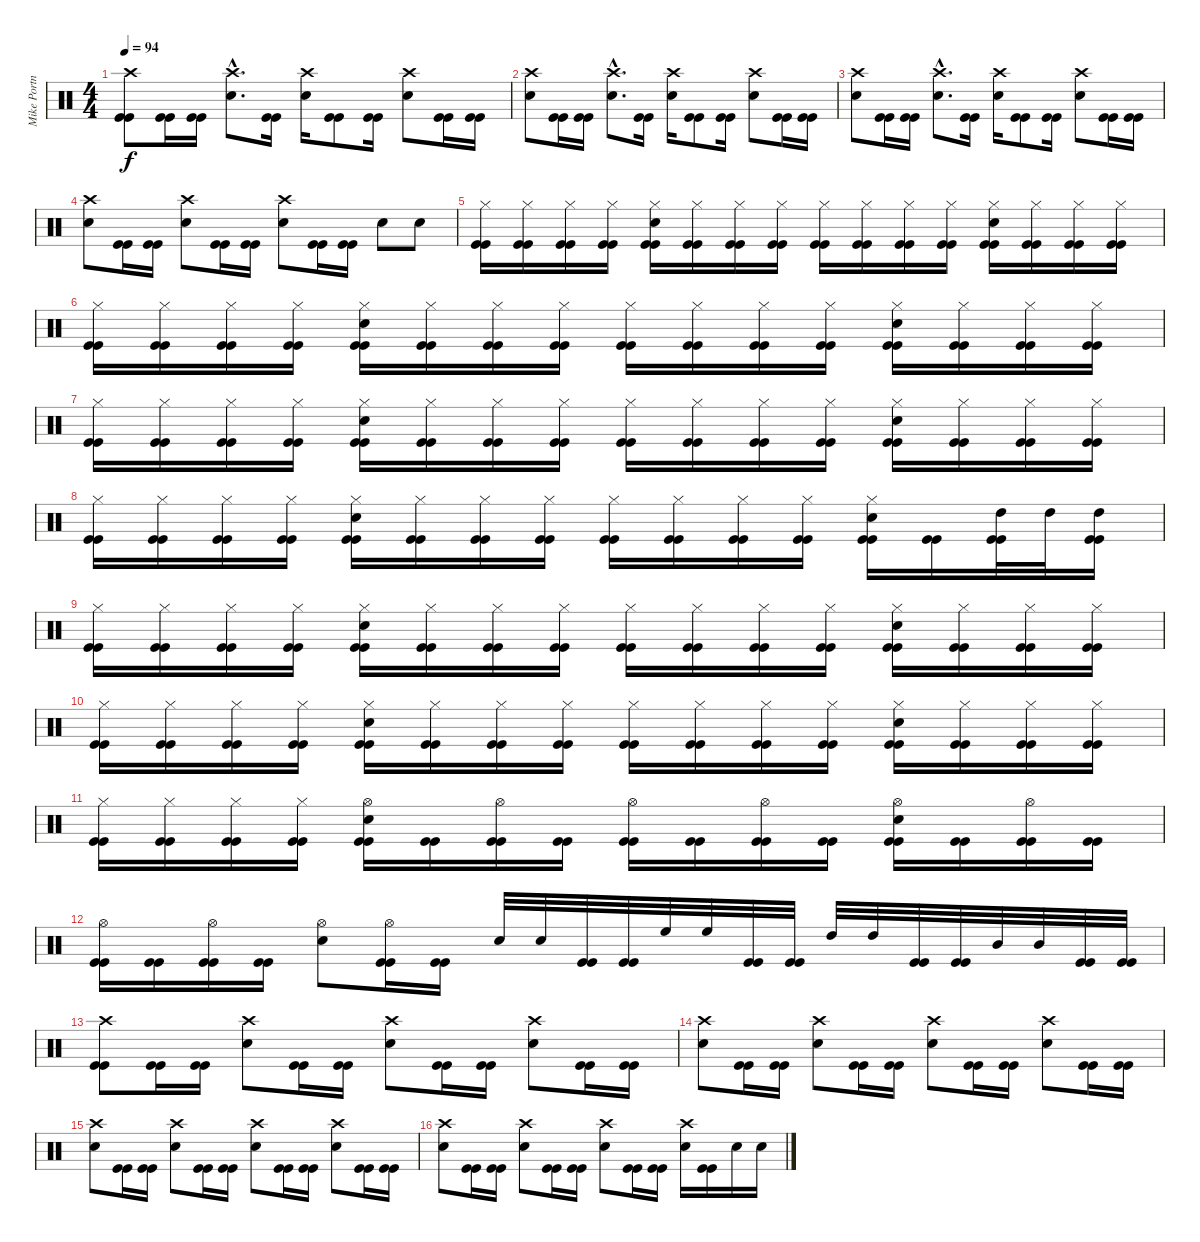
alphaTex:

\track ("Mike Portnoy - Drum" "Mike Portn") {instrument percussion}
\staff {score}
\articulation defaults
\ts (4 4)
\tempo 94
\clef neutral
\ks c
("Crash high (hit)" "Kick (hit)" "Kick (hit)").8{dy f} ("Kick (hit)" "Kick (hit)").16 ("Kick (hit)" "Kick (hit)").16 ("Crash high (hit)"{hac} "Snare (hit) 2"{hac}).8{d} ("Kick (hit)" "Kick (hit)").16 ("Crash high (hit)" "Snare (hit) 2").16 ("Kick (hit)" "Kick (hit)").8 ("Kick (hit)" "Kick (hit)").16 ("Crash high (hit)" "Snare (hit) 2").8 ("Kick (hit)" "Kick (hit)").16 ("Kick (hit)" "Kick (hit)").16 |
("Crash high (hit)" "Snare (hit) 2").8 ("Kick (hit)" "Kick (hit)").16 ("Kick (hit)" "Kick (hit)").16 ("Crash high (hit)"{hac} "Snare (hit) 2"{hac}).8{d} ("Kick (hit)" "Kick (hit)").16 ("Crash high (hit)" "Snare (hit) 2").16 ("Kick (hit)" "Kick (hit)").8 ("Kick (hit)" "Kick (hit)").16 ("Crash high (hit)" "Snare (hit) 2").8 ("Kick (hit)" "Kick (hit)").16 ("Kick (hit)" "Kick (hit)").16 |
("Crash high (hit)" "Snare (hit) 2").8 ("Kick (hit)" "Kick (hit)").16 ("Kick (hit)" "Kick (hit)").16 ("Crash high (hit)"{hac} "Snare (hit) 2"{hac}).8{d} ("Kick (hit)" "Kick (hit)").16 ("Crash high (hit)" "Snare (hit) 2").16 ("Kick (hit)" "Kick (hit)").8 ("Kick (hit)" "Kick (hit)").16 ("Crash high (hit)" "Snare (hit) 2").8 ("Kick (hit)" "Kick (hit)").16 ("Kick (hit)" "Kick (hit)").16 |
("Crash high (hit)" "Snare (hit) 2").8 ("Kick (hit)" "Kick (hit)").16 ("Kick (hit)" "Kick (hit)").16 ("Crash high (hit)" "Snare (hit) 2").8 ("Kick (hit)" "Kick (hit)").16 ("Kick (hit)" "Kick (hit)").16 ("Crash high (hit)" "Snare (hit) 2").8 ("Kick (hit)" "Kick (hit)").16 ("Kick (hit)" "Kick (hit)").16 "Snare (hit) 2".8 "Snare (hit) 2".8 |
("Hi-Hat (closed)" "Kick (hit)" "Kick (hit)").16 ("Hi-Hat (closed)" "Kick (hit)" "Kick (hit)").16 ("Hi-Hat (closed)" "Kick (hit)" "Kick (hit)").16 ("Hi-Hat (closed)" "Kick (hit)" "Kick (hit)").16 ("Hi-Hat (closed)" "Snare (hit) 2" "Kick (hit)" "Kick (hit)").16 ("Hi-Hat (closed)" "Kick (hit)" "Kick (hit)").16 ("Hi-Hat (closed)" "Kick (hit)" "Kick (hit)").16 ("Hi-Hat (closed)" "Kick (hit)" "Kick (hit)").16 ("Hi-Hat (closed)" "Kick (hit)" "Kick (hit)").16 ("Hi-Hat (closed)" "Kick (hit)" "Kick (hit)").16 ("Hi-Hat (closed)" "Kick (hit)" "Kick (hit)").16 ("Hi-Hat (closed)" "Kick (hit)" "Kick (hit)").16 ("Hi-Hat (closed)" "Snare (hit) 2" "Kick (hit)" "Kick (hit)").16 ("Hi-Hat (closed)" "Kick (hit)" "Kick (hit)").16 ("Hi-Hat (closed)" "Kick (hit)" "Kick (hit)").16 ("Hi-Hat (closed)" "Kick (hit)" "Kick (hit)").16 |
("Hi-Hat (closed)" "Kick (hit)" "Kick (hit)").16 ("Hi-Hat (closed)" "Kick (hit)" "Kick (hit)").16 ("Hi-Hat (closed)" "Kick (hit)" "Kick (hit)").16 ("Hi-Hat (closed)" "Kick (hit)" "Kick (hit)").16 ("Hi-Hat (closed)" "Snare (hit) 2" "Kick (hit)" "Kick (hit)").16 ("Hi-Hat (closed)" "Kick (hit)" "Kick (hit)").16 ("Hi-Hat (closed)" "Kick (hit)" "Kick (hit)").16 ("Hi-Hat (closed)" "Kick (hit)" "Kick (hit)").16 ("Hi-Hat (closed)" "Kick (hit)" "Kick (hit)").16 ("Hi-Hat (closed)" "Kick (hit)" "Kick (hit)").16 ("Hi-Hat (closed)" "Kick (hit)" "Kick (hit)").16 ("Hi-Hat (closed)" "Kick (hit)" "Kick (hit)").16 ("Hi-Hat (closed)" "Snare (hit) 2" "Kick (hit)" "Kick (hit)").16 ("Hi-Hat (closed)" "Kick (hit)" "Kick (hit)").16 ("Hi-Hat (closed)" "Kick (hit)" "Kick (hit)").16 ("Hi-Hat (closed)" "Kick (hit)" "Kick (hit)").16 |
("Hi-Hat (closed)" "Kick (hit)" "Kick (hit)").16 ("Hi-Hat (closed)" "Kick (hit)" "Kick (hit)").16 ("Hi-Hat (closed)" "Kick (hit)" "Kick (hit)").16 ("Hi-Hat (closed)" "Kick (hit)" "Kick (hit)").16 ("Hi-Hat (closed)" "Snare (hit) 2" "Kick (hit)" "Kick (hit)").16 ("Hi-Hat (closed)" "Kick (hit)" "Kick (hit)").16 ("Hi-Hat (closed)" "Kick (hit)" "Kick (hit)").16 ("Hi-Hat (closed)" "Kick (hit)" "Kick (hit)").16 ("Hi-Hat (closed)" "Kick (hit)" "Kick (hit)").16 ("Hi-Hat (closed)" "Kick (hit)" "Kick (hit)").16 ("Hi-Hat (closed)" "Kick (hit)" "Kick (hit)").16 ("Hi-Hat (closed)" "Kick (hit)" "Kick (hit)").16 ("Hi-Hat (closed)" "Snare (hit) 2" "Kick (hit)" "Kick (hit)").16 ("Hi-Hat (closed)" "Kick (hit)" "Kick (hit)").16 ("Hi-Hat (closed)" "Kick (hit)" "Kick (hit)").16 ("Hi-Hat (closed)" "Kick (hit)" "Kick (hit)").16 |
("Hi-Hat (closed)" "Kick (hit)" "Kick (hit)").16 ("Hi-Hat (closed)" "Kick (hit)" "Kick (hit)").16 ("Hi-Hat (closed)" "Kick (hit)" "Kick (hit)").16 ("Hi-Hat (closed)" "Kick (hit)" "Kick (hit)").16 ("Hi-Hat (closed)" "Snare (hit) 2" "Kick (hit)" "Kick (hit)").16 ("Hi-Hat (closed)" "Kick (hit)" "Kick (hit)").16 ("Hi-Hat (closed)" "Kick (hit)" "Kick (hit)").16 ("Hi-Hat (closed)" "Kick (hit)" "Kick (hit)").16 ("Hi-Hat (closed)" "Kick (hit)" "Kick (hit)").16 ("Hi-Hat (closed)" "Kick (hit)" "Kick (hit)").16 ("Hi-Hat (closed)" "Kick (hit)" "Kick (hit)").16 ("Hi-Hat (closed)" "Kick (hit)" "Kick (hit)").16 ("Hi-Hat (closed)" "Snare (hit) 2" "Kick (hit)" "Kick (hit)").16 ("Kick (hit)" "Kick (hit)").16 ("High Tom (hit)" "Kick (hit)" "Kick (hit)").32 "High Tom (hit)".32 ("High Tom (hit)" "Kick (hit)" "Kick (hit)").16 |
("Hi-Hat (closed)" "Kick (hit)" "Kick (hit)").16 ("Hi-Hat (closed)" "Kick (hit)" "Kick (hit)").16 ("Hi-Hat (closed)" "Kick (hit)" "Kick (hit)").16 ("Hi-Hat (closed)" "Kick (hit)" "Kick (hit)").16 ("Hi-Hat (closed)" "Snare (hit) 2" "Kick (hit)" "Kick (hit)").16 ("Hi-Hat (closed)" "Kick (hit)" "Kick (hit)").16 ("Hi-Hat (closed)" "Kick (hit)" "Kick (hit)").16 ("Hi-Hat (closed)" "Kick (hit)" "Kick (hit)").16 ("Hi-Hat (closed)" "Kick (hit)" "Kick (hit)").16 ("Hi-Hat (closed)" "Kick (hit)" "Kick (hit)").16 ("Hi-Hat (closed)" "Kick (hit)" "Kick (hit)").16 ("Hi-Hat (closed)" "Kick (hit)" "Kick (hit)").16 ("Hi-Hat (closed)" "Snare (hit) 2" "Kick (hit)" "Kick (hit)").16 ("Hi-Hat (closed)" "Kick (hit)" "Kick (hit)").16 ("Hi-Hat (closed)" "Kick (hit)" "Kick (hit)").16 ("Hi-Hat (closed)" "Kick (hit)" "Kick (hit)").16 |
("Hi-Hat (closed)" "Kick (hit)" "Kick (hit)").16 ("Hi-Hat (closed)" "Kick (hit)" "Kick (hit)").16 ("Hi-Hat (closed)" "Kick (hit)" "Kick (hit)").16 ("Hi-Hat (closed)" "Kick (hit)" "Kick (hit)").16 ("Hi-Hat (closed)" "Snare (hit) 2" "Kick (hit)" "Kick (hit)").16 ("Hi-Hat (closed)" "Kick (hit)" "Kick (hit)").16 ("Hi-Hat (closed)" "Kick (hit)" "Kick (hit)").16 ("Hi-Hat (closed)" "Kick (hit)" "Kick (hit)").16 ("Hi-Hat (closed)" "Kick (hit)" "Kick (hit)").16 ("Hi-Hat (closed)" "Kick (hit)" "Kick (hit)").16 ("Hi-Hat (closed)" "Kick (hit)" "Kick (hit)").16 ("Hi-Hat (closed)" "Kick (hit)" "Kick (hit)").16 ("Hi-Hat (closed)" "Snare (hit) 2" "Kick (hit)" "Kick (hit)").16 ("Hi-Hat (closed)" "Kick (hit)" "Kick (hit)").16 ("Hi-Hat (closed)" "Kick (hit)" "Kick (hit)").16 ("Hi-Hat (closed)" "Kick (hit)" "Kick (hit)").16 |
("Hi-Hat (closed)" "Kick (hit)" "Kick (hit)").16 ("Hi-Hat (closed)" "Kick (hit)" "Kick (hit)").16 ("Hi-Hat (closed)" "Kick (hit)" "Kick (hit)").16 ("Hi-Hat (closed)" "Kick (hit)" "Kick (hit)").16 ("Hi-Hat (open)" "Snare (hit) 2" "Kick (hit)" "Kick (hit)").16 ("Kick (hit)" "Kick (hit)").16 ("Hi-Hat (open)" "Kick (hit)" "Kick (hit)").16 ("Kick (hit)" "Kick (hit)").16 ("Hi-Hat (open)" "Kick (hit)" "Kick (hit)").16 ("Kick (hit)" "Kick (hit)").16 ("Hi-Hat (open)" "Kick (hit)" "Kick (hit)").16 ("Kick (hit)" "Kick (hit)").16 ("Hi-Hat (open)" "Snare (hit) 2" "Kick (hit)" "Kick (hit)").16 ("Kick (hit)" "Kick (hit)").16 ("Hi-Hat (open)" "Kick (hit)" "Kick (hit)").16 ("Kick (hit)" "Kick (hit)").16 |
("Hi-Hat (open)" "Kick (hit)" "Kick (hit)").16 ("Kick (hit)" "Kick (hit)").16 ("Hi-Hat (open)" "Kick (hit)" "Kick (hit)").16 ("Kick (hit)" "Kick (hit)").16 ("Hi-Hat (open)" "Snare (hit) 2").8 ("Hi-Hat (open)" "Kick (hit)" "Kick (hit)").16 ("Kick (hit)" "Kick (hit)").16 "Snare (hit) 2".32 "Snare (hit) 2".32 ("Kick (hit)" "Kick (hit)").32 ("Kick (hit)" "Kick (hit)").32 "High Floor Tom (hit)".32 "High Floor Tom (hit)".32 ("Kick (hit)" "Kick (hit)").32 ("Kick (hit)" "Kick (hit)").32 "High Tom (hit)".32 "High Tom (hit)".32 ("Kick (hit)" "Kick (hit)").32 ("Kick (hit)" "Kick (hit)").32 "Mid Tom (hit)".32 "Mid Tom (hit)".32 ("Kick (hit)" "Kick (hit)").32 ("Kick (hit)" "Kick (hit)").32 |
("Crash high (hit)" "Kick (hit)" "Kick (hit)").8 ("Kick (hit)" "Kick (hit)").16 ("Kick (hit)" "Kick (hit)").16 ("Crash high (hit)" "Snare (hit) 2").8 ("Kick (hit)" "Kick (hit)").16 ("Kick (hit)" "Kick (hit)").16 ("Crash high (hit)" "Snare (hit) 2").8 ("Kick (hit)" "Kick (hit)").16 ("Kick (hit)" "Kick (hit)").16 ("Crash high (hit)" "Snare (hit) 2").8 ("Kick (hit)" "Kick (hit)").16 ("Kick (hit)" "Kick (hit)").16 |
("Crash high (hit)" "Snare (hit) 2").8 ("Kick (hit)" "Kick (hit)").16 ("Kick (hit)" "Kick (hit)").16 ("Crash high (hit)" "Snare (hit) 2").8 ("Kick (hit)" "Kick (hit)").16 ("Kick (hit)" "Kick (hit)").16 ("Crash high (hit)" "Snare (hit) 2").8 ("Kick (hit)" "Kick (hit)").16 ("Kick (hit)" "Kick (hit)").16 ("Crash high (hit)" "Snare (hit) 2").8 ("Kick (hit)" "Kick (hit)").16 ("Kick (hit)" "Kick (hit)").16 |
("Crash high (hit)" "Snare (hit) 2").8 ("Kick (hit)" "Kick (hit)").16 ("Kick (hit)" "Kick (hit)").16 ("Crash high (hit)" "Snare (hit) 2").8 ("Kick (hit)" "Kick (hit)").16 ("Kick (hit)" "Kick (hit)").16 ("Crash high (hit)" "Snare (hit) 2").8 ("Kick (hit)" "Kick (hit)").16 ("Kick (hit)" "Kick (hit)").16 ("Crash high (hit)" "Snare (hit) 2").8 ("Kick (hit)" "Kick (hit)").16 ("Kick (hit)" "Kick (hit)").16 |
("Crash high (hit)" "Snare (hit) 2").8 ("Kick (hit)" "Kick (hit)").16 ("Kick (hit)" "Kick (hit)").16 ("Crash high (hit)" "Snare (hit) 2").8 ("Kick (hit)" "Kick (hit)").16 ("Kick (hit)" "Kick (hit)").16 ("Crash high (hit)" "Snare (hit) 2").8 ("Kick (hit)" "Kick (hit)").16 ("Kick (hit)" "Kick (hit)").16 ("Crash high (hit)" "Snare (hit) 2").16 ("Kick (hit)" "Kick (hit)").16 "Snare (hit) 2".16 "Snare (hit) 2".16
